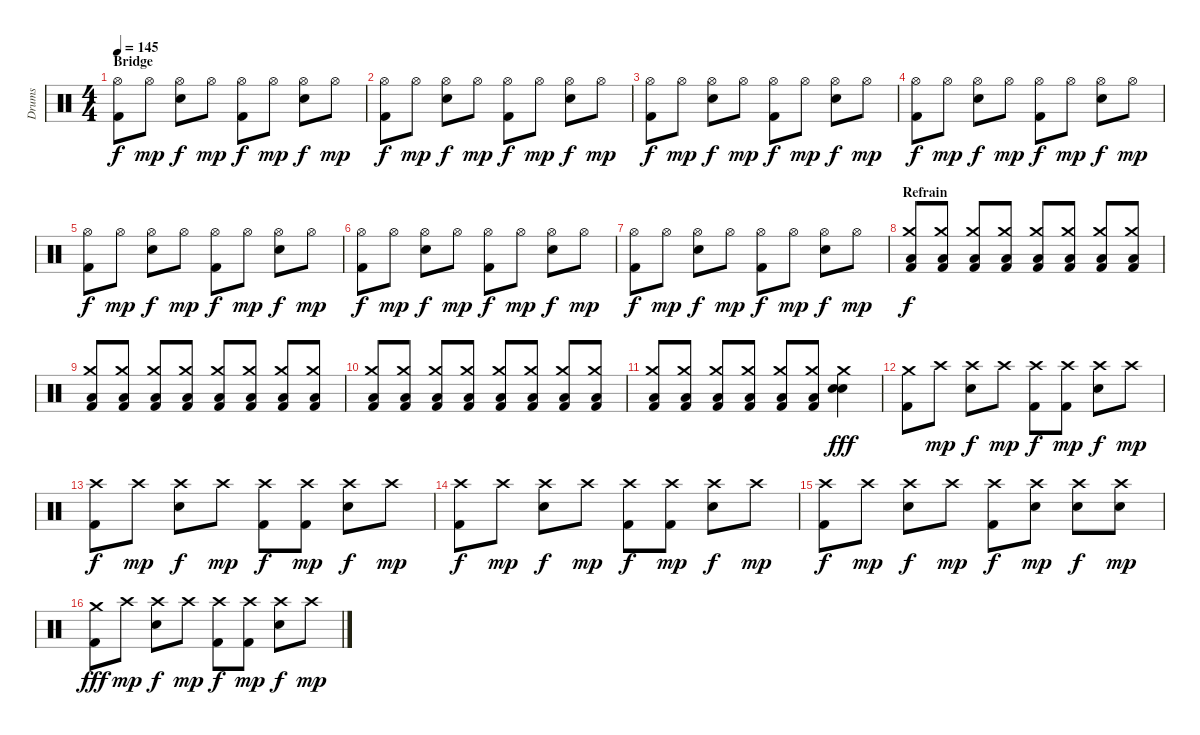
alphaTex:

\track ("Drums" "Drums") {instrument percussion}
\staff {score}
\articulation defaults
\ts (4 4)
\section ("" "Bridge")
\tempo 145
\clef neutral
\ks c
("Hi-Hat (open)" "Kick (hit) 2").8{dy f volume 7} "Hi-Hat (open)".8{dy mp} ("Hi-Hat (open)" "Snare (hit) 2").8{dy f} "Hi-Hat (open)".8{dy mp} ("Hi-Hat (open)" "Kick (hit) 2").8{dy f} "Hi-Hat (open)".8{dy mp} ("Hi-Hat (open)" "Snare (hit) 2").8{dy f} "Hi-Hat (open)".8{dy mp} |
("Hi-Hat (open)" "Kick (hit) 2").8{dy f volume 7} "Hi-Hat (open)".8{dy mp} ("Hi-Hat (open)" "Snare (hit) 2").8{dy f} "Hi-Hat (open)".8{dy mp} ("Hi-Hat (open)" "Kick (hit) 2").8{dy f} "Hi-Hat (open)".8{dy mp} ("Hi-Hat (open)" "Snare (hit) 2").8{dy f} "Hi-Hat (open)".8{dy mp} |
("Hi-Hat (open)" "Kick (hit) 2").8{dy f} "Hi-Hat (open)".8{dy mp} ("Hi-Hat (open)" "Snare (hit) 2").8{dy f} "Hi-Hat (open)".8{dy mp} ("Hi-Hat (open)" "Kick (hit) 2").8{dy f} "Hi-Hat (open)".8{dy mp} ("Hi-Hat (open)" "Snare (hit) 2").8{dy f} "Hi-Hat (open)".8{dy mp} |
("Hi-Hat (open)" "Kick (hit) 2").8{dy f volume 10} "Hi-Hat (open)".8{dy mp} ("Hi-Hat (open)" "Snare (hit) 2").8{dy f} "Hi-Hat (open)".8{dy mp} ("Hi-Hat (open)" "Kick (hit) 2").8{dy f} "Hi-Hat (open)".8{dy mp} ("Hi-Hat (open)" "Snare (hit) 2").8{dy f} "Hi-Hat (open)".8{dy mp} |
("Hi-Hat (open)" "Kick (hit) 2").8{dy f} "Hi-Hat (open)".8{dy mp} ("Hi-Hat (open)" "Snare (hit) 2").8{dy f} "Hi-Hat (open)".8{dy mp} ("Hi-Hat (open)" "Kick (hit) 2").8{dy f} "Hi-Hat (open)".8{dy mp} ("Hi-Hat (open)" "Snare (hit) 2").8{dy f} "Hi-Hat (open)".8{dy mp} |
("Hi-Hat (open)" "Kick (hit) 2").8{dy f} "Hi-Hat (open)".8{dy mp} ("Hi-Hat (open)" "Snare (hit) 2").8{dy f} "Hi-Hat (open)".8{dy mp} ("Hi-Hat (open)" "Kick (hit) 2").8{dy f} "Hi-Hat (open)".8{dy mp} ("Hi-Hat (open)" "Snare (hit) 2").8{dy f} "Hi-Hat (open)".8{dy mp} |
("Hi-Hat (open)" "Kick (hit) 2").8{dy f} "Hi-Hat (open)".8{dy mp} ("Hi-Hat (open)" "Snare (hit) 2").8{dy f} "Hi-Hat (open)".8{dy mp} ("Hi-Hat (open)" "Kick (hit) 2").8{dy f} "Hi-Hat (open)".8{dy mp} ("Hi-Hat (open)" "Snare (hit) 2").8{dy f} "Hi-Hat (open)".8{dy mp volume 7} |
\section ("" "Refrain")
("Crash medium (hit)" "Low Tom (hit)" "Kick (hit) 2").8{dy f volume 13} ("Crash medium (hit)" "Low Tom (hit)" "Kick (hit) 2").8 ("Crash medium (hit)" "Low Tom (hit)" "Kick (hit) 2").8 ("Crash medium (hit)" "Low Tom (hit)" "Kick (hit) 2").8 ("Crash medium (hit)" "Low Tom (hit)" "Kick (hit) 2").8 ("Crash medium (hit)" "Low Tom (hit)" "Kick (hit) 2").8 ("Crash medium (hit)" "Low Tom (hit)" "Kick (hit) 2").8 ("Crash medium (hit)" "Low Tom (hit)" "Kick (hit) 2").8 |
("Crash medium (hit)" "Low Tom (hit)" "Kick (hit) 2").8 ("Crash medium (hit)" "Low Tom (hit)" "Kick (hit) 2").8 ("Crash medium (hit)" "Low Tom (hit)" "Kick (hit) 2").8 ("Crash medium (hit)" "Low Tom (hit)" "Kick (hit) 2").8 ("Crash medium (hit)" "Low Tom (hit)" "Kick (hit) 2").8 ("Crash medium (hit)" "Low Tom (hit)" "Kick (hit) 2").8 ("Crash medium (hit)" "Low Tom (hit)" "Kick (hit) 2").8 ("Crash medium (hit)" "Low Tom (hit)" "Kick (hit) 2").8 |
("Crash medium (hit)" "Low Tom (hit)" "Kick (hit) 2").8 ("Crash medium (hit)" "Low Tom (hit)" "Kick (hit) 2").8 ("Crash medium (hit)" "Low Tom (hit)" "Kick (hit) 2").8 ("Crash medium (hit)" "Low Tom (hit)" "Kick (hit) 2").8 ("Crash medium (hit)" "Low Tom (hit)" "Kick (hit) 2").8 ("Crash medium (hit)" "Low Tom (hit)" "Kick (hit) 2").8 ("Crash medium (hit)" "Low Tom (hit)" "Kick (hit) 2").8 ("Crash medium (hit)" "Low Tom (hit)" "Kick (hit) 2").8 |
("Crash medium (hit)" "Low Tom (hit)" "Kick (hit) 2").8 ("Crash medium (hit)" "Low Tom (hit)" "Kick (hit) 2").8 ("Crash medium (hit)" "Low Tom (hit)" "Kick (hit) 2").8 ("Crash medium (hit)" "Low Tom (hit)" "Kick (hit) 2").8 ("Crash medium (hit)" "Low Tom (hit)" "Kick (hit) 2").8 ("Crash medium (hit)" "Low Tom (hit)" "Kick (hit) 2").8 ("Crash medium (hit)" "Snare (hit) 2" "Snare (hit) 2").4{dy fff} |
("Crash medium (hit)" "Kick (hit) 2").8 "Crash high (hit)".8{dy mp} ("Crash high (hit)" "Snare (hit) 2").8{dy f} "Crash high (hit)".8{dy mp} ("Crash high (hit)" "Kick (hit) 2").8{dy f} ("Crash high (hit)" "Kick (hit) 2").8{dy mp} ("Crash high (hit)" "Snare (hit) 2").8{dy f} "Crash high (hit)".8{dy mp} |
("Crash high (hit)" "Kick (hit) 2").8{dy f} "Crash high (hit)".8{dy mp} ("Crash high (hit)" "Snare (hit) 2").8{dy f} "Crash high (hit)".8{dy mp} ("Crash high (hit)" "Kick (hit) 2").8{dy f} ("Crash high (hit)" "Kick (hit) 2").8{dy mp} ("Crash high (hit)" "Snare (hit) 2").8{dy f} "Crash high (hit)".8{dy mp} |
("Crash high (hit)" "Kick (hit) 2").8{dy f} "Crash high (hit)".8{dy mp} ("Crash high (hit)" "Snare (hit) 2").8{dy f} "Crash high (hit)".8{dy mp} ("Crash high (hit)" "Kick (hit) 2").8{dy f} ("Crash high (hit)" "Kick (hit) 2").8{dy mp} ("Crash high (hit)" "Snare (hit) 2").8{dy f} "Crash high (hit)".8{dy mp} |
("Crash high (hit)" "Kick (hit) 2").8{dy f} "Crash high (hit)".8{dy mp} ("Crash high (hit)" "Snare (hit) 2").8{dy f} "Crash high (hit)".8{dy mp} ("Crash high (hit)" "Kick (hit) 2").8{dy f} ("Crash high (hit)" "Snare (hit) 2").8{dy mp} ("Crash high (hit)" "Snare (hit) 2").8{dy f} ("Crash high (hit)" "Snare (hit) 2").8{dy mp} |
("Crash medium (hit)" "Kick (hit) 2").8{dy fff} "Crash high (hit)".8{dy mp} ("Crash high (hit)" "Snare (hit) 2").8{dy f} "Crash high (hit)".8{dy mp} ("Crash high (hit)" "Kick (hit) 2").8{dy f} ("Crash high (hit)" "Kick (hit) 2").8{dy mp} ("Crash high (hit)" "Snare (hit) 2").8{dy f} "Crash high (hit)".8{dy mp}
